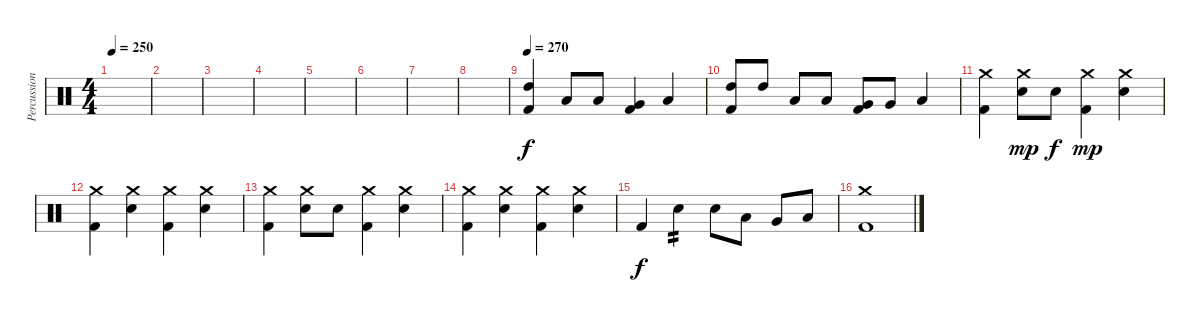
\track ("Percussion" "Percussion") {instrument percussion}
\staff {score}
\articulation defaults
\ts (4 4)
\tempo 250
\clef neutral
\ks c
|
|
|
|
|
|
|
|
\tempo 270
("High Tom (hit)" "Kick (hit) 2").4 "Low Tom (hit)".8 "Low Tom (hit)".8 ("Very Low Tom (hit)" "Kick (hit) 2").4 "Low Floor Tom (hit)".4 |
("High Tom (hit)" "Kick (hit) 2").8 "High Tom (hit)".8 "Low Tom (hit)".8 "Low Tom (hit)".8 ("Very Low Tom (hit)" "Kick (hit) 2").8 "Very Low Tom (hit)".8 "Low Floor Tom (hit)".4 |
("Crash medium (hit)" "Kick (hit) 2").4 ("Crash medium (hit)" "Electric Snare (hit)").8{dy mp} "Electric Snare (hit)".8{dy f} ("Crash medium (hit)" "Kick (hit) 2").4{dy mp} ("Crash medium (hit)" "Electric Snare (hit)").4 |
("Crash medium (hit)" "Kick (hit) 2").4 ("Crash medium (hit)" "Electric Snare (hit)").4 ("Crash medium (hit)" "Kick (hit) 2").4 ("Crash medium (hit)" "Electric Snare (hit)").4 |
("Crash medium (hit)" "Kick (hit) 2").4 ("Crash medium (hit)" "Electric Snare (hit)").8 "Electric Snare (hit)".8 ("Crash medium (hit)" "Kick (hit) 2").4 ("Crash medium (hit)" "Electric Snare (hit)").4 |
("Crash medium (hit)" "Kick (hit) 2").4 ("Crash medium (hit)" "Electric Snare (hit)").4 ("Crash medium (hit)" "Kick (hit) 2").4 ("Crash medium (hit)" "Electric Snare (hit)").4 |
"Kick (hit) 2".4{dy f} "Electric Snare (hit)".4{tp 2} "Electric Snare (hit)".8 "Low Tom (hit)".8 "Very Low Tom (hit)".8 "Low Floor Tom (hit)".8 |
("Crash medium (hit)" "Kick (hit) 2").1
